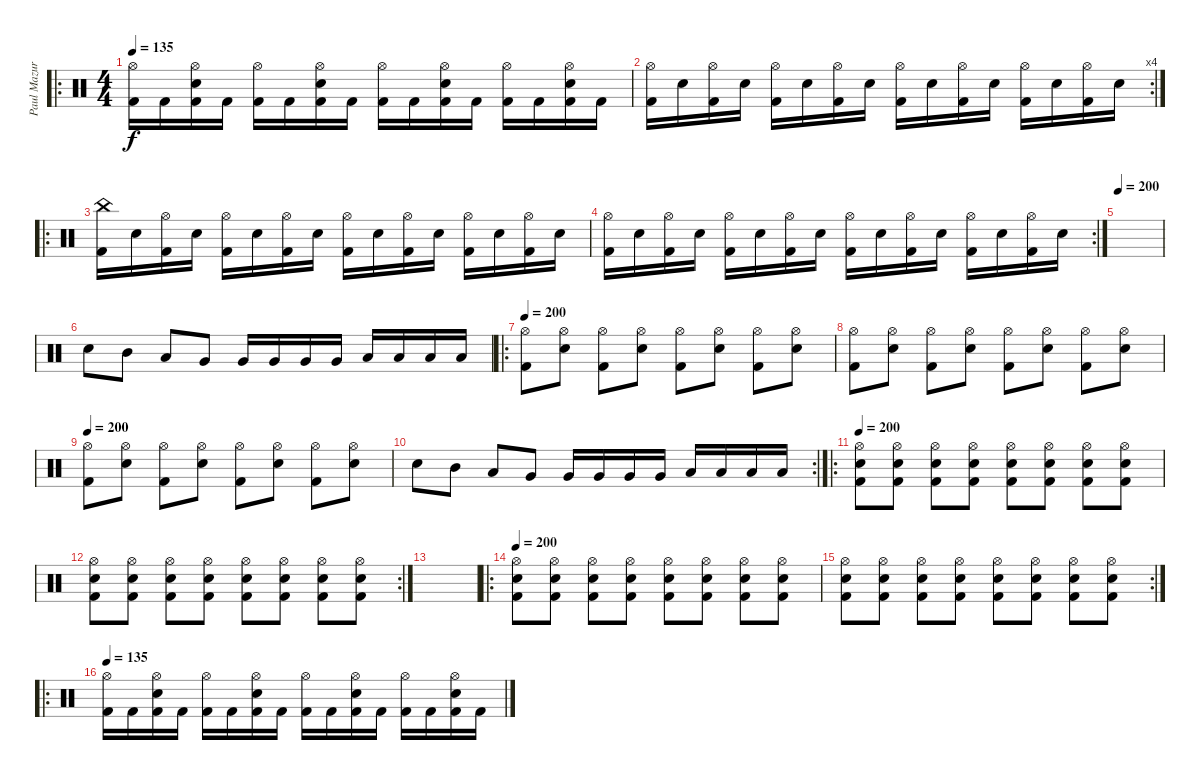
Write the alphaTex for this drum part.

\track ("Paul Mazurkiewicz" "Paul Mazur") {instrument percussion}
\staff {score}
\articulation defaults
\ro
\ts (4 4)
\tempo 135
\clef neutral
\ks c
("Hi-Hat (open)" "Kick (hit) 2").16{dy f} "Kick (hit) 2".16 ("Hi-Hat (open)" "Kick (hit) 2" "Snare (hit) 2").16 "Kick (hit) 2".16 ("Hi-Hat (open)" "Kick (hit) 2").16 "Kick (hit) 2".16 ("Hi-Hat (open)" "Kick (hit) 2" "Snare (hit) 2").16 "Kick (hit) 2".16 ("Hi-Hat (open)" "Kick (hit) 2").16 "Kick (hit) 2".16 ("Hi-Hat (open)" "Kick (hit) 2" "Snare (hit) 2").16 "Kick (hit) 2".16 ("Hi-Hat (open)" "Kick (hit) 2").16 "Kick (hit) 2".16 ("Hi-Hat (open)" "Kick (hit) 2" "Snare (hit) 2").16 "Kick (hit) 2".16 |
\rc 4
("Hi-Hat (open)" "Kick (hit) 2").16 "Snare (hit) 2".16 ("Hi-Hat (open)" "Kick (hit) 2").16 "Snare (hit) 2".16 ("Hi-Hat (open)" "Kick (hit) 2").16 "Snare (hit) 2".16 ("Hi-Hat (open)" "Kick (hit) 2").16 "Snare (hit) 2".16 ("Hi-Hat (open)" "Kick (hit) 2").16 "Snare (hit) 2".16 ("Hi-Hat (open)" "Kick (hit) 2").16 "Snare (hit) 2".16 ("Hi-Hat (open)" "Kick (hit) 2").16 "Snare (hit) 2".16 ("Hi-Hat (open)" "Kick (hit) 2").16 "Snare (hit) 2".16 |
\ro
("China (hit)" "Kick (hit) 2").16 "Snare (hit) 2".16 ("Hi-Hat (open)" "Kick (hit) 2").16 "Snare (hit) 2".16 ("Hi-Hat (open)" "Kick (hit) 2").16 "Snare (hit) 2".16 ("Hi-Hat (open)" "Kick (hit) 2").16 "Snare (hit) 2".16 ("Hi-Hat (open)" "Kick (hit) 2").16 "Snare (hit) 2".16 ("Hi-Hat (open)" "Kick (hit) 2").16 "Snare (hit) 2".16 ("Hi-Hat (open)" "Kick (hit) 2").16 "Snare (hit) 2".16 ("Hi-Hat (open)" "Kick (hit) 2").16 "Snare (hit) 2".16 |
\rc 2
("Hi-Hat (open)" "Kick (hit) 2").16 "Snare (hit) 2".16 ("Hi-Hat (open)" "Kick (hit) 2").16 "Snare (hit) 2".16 ("Hi-Hat (open)" "Kick (hit) 2").16 "Snare (hit) 2".16 ("Hi-Hat (open)" "Kick (hit) 2").16 "Snare (hit) 2".16 ("Hi-Hat (open)" "Kick (hit) 2").16 "Snare (hit) 2".16 ("Hi-Hat (open)" "Kick (hit) 2").16 "Snare (hit) 2".16 ("Hi-Hat (open)" "Kick (hit) 2").16 "Snare (hit) 2".16 ("Hi-Hat (open)" "Kick (hit) 2").16 "Snare (hit) 2".16 |
\tempo 200
|
"Snare (hit) 2".8 "Mid Tom (hit)".8 "Low Tom (hit)".8 "Very Low Tom (hit)".8 "Very Low Tom (hit)".16 "Very Low Tom (hit)".16 "Very Low Tom (hit)".16 "Very Low Tom (hit)".16 "Low Floor Tom (hit)".16 "Low Floor Tom (hit)".16 "Low Floor Tom (hit)".16 "Low Floor Tom (hit)".16 |
\ro
\tempo 200
("Hi-Hat (open)" "Kick (hit) 2").8 ("Snare (hit) 2" "Hi-Hat (open)").8 ("Hi-Hat (open)" "Kick (hit) 2").8 ("Snare (hit) 2" "Hi-Hat (open)").8 ("Hi-Hat (open)" "Kick (hit) 2").8 ("Snare (hit) 2" "Hi-Hat (open)").8 ("Hi-Hat (open)" "Kick (hit) 2").8 ("Snare (hit) 2" "Hi-Hat (open)").8 |
("Hi-Hat (open)" "Kick (hit) 2").8 ("Snare (hit) 2" "Hi-Hat (open)").8 ("Hi-Hat (open)" "Kick (hit) 2").8 ("Snare (hit) 2" "Hi-Hat (open)").8 ("Hi-Hat (open)" "Kick (hit) 2").8 ("Snare (hit) 2" "Hi-Hat (open)").8 ("Hi-Hat (open)" "Kick (hit) 2").8 ("Snare (hit) 2" "Hi-Hat (open)").8 |
\tempo 200
("Hi-Hat (open)" "Kick (hit) 2").8 ("Snare (hit) 2" "Hi-Hat (open)").8 ("Hi-Hat (open)" "Kick (hit) 2").8 ("Snare (hit) 2" "Hi-Hat (open)").8 ("Hi-Hat (open)" "Kick (hit) 2").8 ("Snare (hit) 2" "Hi-Hat (open)").8 ("Hi-Hat (open)" "Kick (hit) 2").8 ("Snare (hit) 2" "Hi-Hat (open)").8 |
\rc 2 "Snare (hit) 2".8 "Mid Tom (hit)".8 "Low Tom (hit)".8 "Very Low Tom (hit)".8 "Very Low Tom (hit)".16 "Very Low Tom (hit)".16 "Very Low Tom (hit)".16 "Very Low Tom (hit)".16 "Low Floor Tom (hit)".16 "Low Floor Tom (hit)".16 "Low Floor Tom (hit)".16 "Low Floor Tom (hit)".16
|
\ro
\tempo 200
("Hi-Hat (open)" "Snare (hit) 2" "Kick (hit) 2").8 ("Hi-Hat (open)" "Snare (hit) 2" "Kick (hit) 2").8 ("Hi-Hat (open)" "Snare (hit) 2" "Kick (hit) 2").8 ("Hi-Hat (open)" "Snare (hit) 2" "Kick (hit) 2").8 ("Hi-Hat (open)" "Snare (hit) 2" "Kick (hit) 2").8 ("Hi-Hat (open)" "Snare (hit) 2" "Kick (hit) 2").8 ("Hi-Hat (open)" "Snare (hit) 2" "Kick (hit) 2").8 ("Hi-Hat (open)" "Snare (hit) 2" "Kick (hit) 2").8 |
\rc 2
("Hi-Hat (open)" "Snare (hit) 2" "Kick (hit) 2").8 ("Hi-Hat (open)" "Snare (hit) 2" "Kick (hit) 2").8 ("Hi-Hat (open)" "Snare (hit) 2" "Kick (hit) 2").8 ("Hi-Hat (open)" "Snare (hit) 2" "Kick (hit) 2").8 ("Hi-Hat (open)" "Snare (hit) 2" "Kick (hit) 2").8 ("Hi-Hat (open)" "Snare (hit) 2" "Kick (hit) 2").8 ("Hi-Hat (open)" "Snare (hit) 2" "Kick (hit) 2").8 ("Hi-Hat (open)" "Snare (hit) 2" "Kick (hit) 2").8 |
|
\ro
\tempo 200
("Hi-Hat (open)" "Snare (hit) 2" "Kick (hit) 2").8 ("Hi-Hat (open)" "Snare (hit) 2" "Kick (hit) 2").8 ("Hi-Hat (open)" "Snare (hit) 2" "Kick (hit) 2").8 ("Hi-Hat (open)" "Snare (hit) 2" "Kick (hit) 2").8 ("Hi-Hat (open)" "Snare (hit) 2" "Kick (hit) 2").8 ("Hi-Hat (open)" "Snare (hit) 2" "Kick (hit) 2").8 ("Hi-Hat (open)" "Snare (hit) 2" "Kick (hit) 2").8 ("Hi-Hat (open)" "Snare (hit) 2" "Kick (hit) 2").8 |
\rc 2
("Hi-Hat (open)" "Snare (hit) 2" "Kick (hit) 2").8 ("Hi-Hat (open)" "Snare (hit) 2" "Kick (hit) 2").8 ("Hi-Hat (open)" "Snare (hit) 2" "Kick (hit) 2").8 ("Hi-Hat (open)" "Snare (hit) 2" "Kick (hit) 2").8 ("Hi-Hat (open)" "Snare (hit) 2" "Kick (hit) 2").8 ("Hi-Hat (open)" "Snare (hit) 2" "Kick (hit) 2").8 ("Hi-Hat (open)" "Snare (hit) 2" "Kick (hit) 2").8 ("Hi-Hat (open)" "Snare (hit) 2" "Kick (hit) 2").8 |
\ro
\tempo 135
("Hi-Hat (open)" "Kick (hit) 2").16 "Kick (hit) 2".16 ("Hi-Hat (open)" "Kick (hit) 2" "Snare (hit) 2").16 "Kick (hit) 2".16 ("Hi-Hat (open)" "Kick (hit) 2").16 "Kick (hit) 2".16 ("Hi-Hat (open)" "Kick (hit) 2" "Snare (hit) 2").16 "Kick (hit) 2".16 ("Hi-Hat (open)" "Kick (hit) 2").16 "Kick (hit) 2".16 ("Hi-Hat (open)" "Kick (hit) 2" "Snare (hit) 2").16 "Kick (hit) 2".16 ("Hi-Hat (open)" "Kick (hit) 2").16 "Kick (hit) 2".16 ("Hi-Hat (open)" "Kick (hit) 2" "Snare (hit) 2").16 "Kick (hit) 2".16
